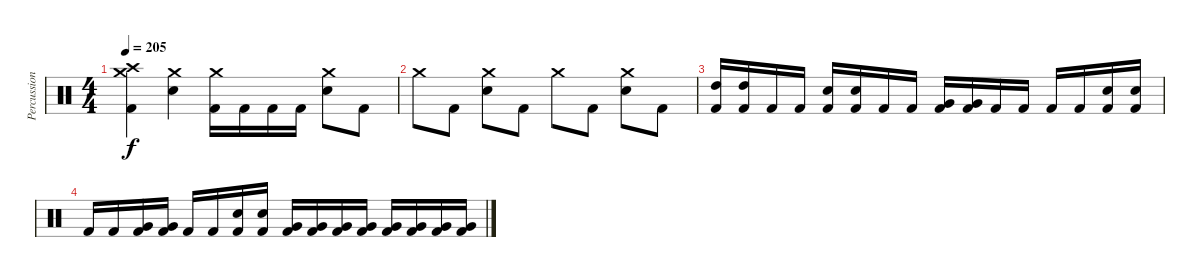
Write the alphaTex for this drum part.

\track ("Percussions" "Percussion") {instrument percussion}
\staff {score}
\articulation defaults
\ts (4 4)
\tempo 205
\clef neutral
\ks c
("Crash medium (hit)" "Crash high (hit)" "Kick (hit) 2").4{dy f} ("Crash medium (hit)" "Electric Snare (hit)").4 ("Crash medium (hit)" "Kick (hit) 2").16 "Kick (hit) 2".16 "Kick (hit) 2".16 "Kick (hit) 2".16 ("Crash medium (hit)" "Electric Snare (hit)").8 "Kick (hit) 2".8 |
"Crash medium (hit)".8 "Kick (hit) 2".8 ("Crash medium (hit)" "Electric Snare (hit)").8 "Kick (hit) 2".8 "Crash medium (hit)".8 "Kick (hit) 2".8 ("Crash medium (hit)" "Electric Snare (hit)").8 "Kick (hit) 2".8 |
("High Tom (hit)" "Kick (hit) 2").16 ("High Tom (hit)" "Kick (hit) 2").16 "Kick (hit) 2".16 "Kick (hit) 2".16 ("Electric Snare (hit)" "Kick (hit) 2").16 ("Electric Snare (hit)" "Kick (hit) 2").16 "Kick (hit) 2".16 "Kick (hit) 2".16 ("Very Low Tom (hit)" "Kick (hit) 2").16 ("Very Low Tom (hit)" "Kick (hit) 2").16 "Kick (hit) 2".16 "Kick (hit) 2".16 "Kick (hit) 2".16 "Kick (hit) 2".16 ("Electric Snare (hit)" "Kick (hit) 2").16 ("Electric Snare (hit)" "Kick (hit) 2").16 |
"Kick (hit) 2".16 "Kick (hit) 2".16 ("Very Low Tom (hit)" "Kick (hit) 2").16 ("Very Low Tom (hit)" "Kick (hit) 2").16 "Kick (hit) 2".16 "Kick (hit) 2".16 ("Electric Snare (hit)" "Kick (hit) 2").16 ("Electric Snare (hit)" "Kick (hit) 2").16 ("Very Low Tom (hit)" "Kick (hit) 2").16 ("Very Low Tom (hit)" "Kick (hit) 2").16 ("Very Low Tom (hit)" "Kick (hit) 2").16 ("Very Low Tom (hit)" "Kick (hit) 2").16 ("Very Low Tom (hit)" "Kick (hit) 2").16 ("Very Low Tom (hit)" "Kick (hit) 2").16 ("Very Low Tom (hit)" "Kick (hit) 2").16 ("Very Low Tom (hit)" "Kick (hit) 2").16
